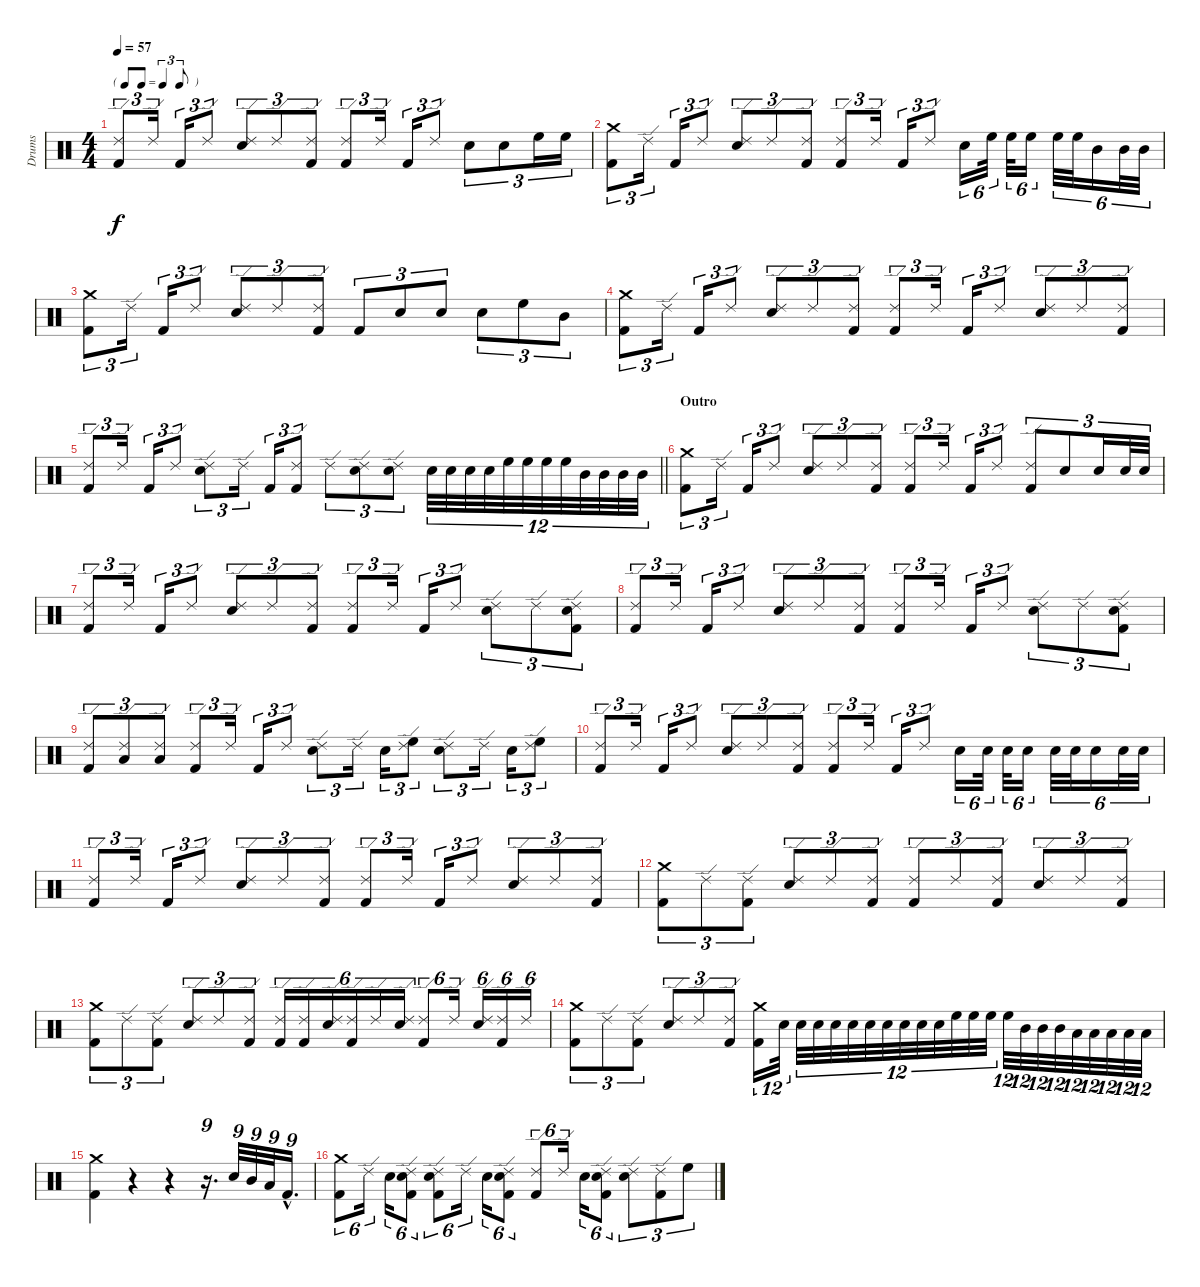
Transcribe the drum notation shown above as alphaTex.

\track ("Drums" "Drums") {instrument percussion}
\staff {score}
\articulation defaults
\ts (4 4)
\tf triplet8th
\tempo 57
\clef neutral
\ks c
("Ride (edge) 2" "Kick (hit) 2").8{tu (3 2) dy f} "Ride (edge) 2".16{tu (3 2)} "Kick (hit) 2".16{tu (3 2)} "Ride (edge) 2".8{tu (3 2)} ("Ride (edge) 2" "Snare (hit) 2").8{tu (3 2)} "Ride (edge) 2".8{tu (3 2)} ("Ride (edge) 2" "Kick (hit) 2").8{tu (3 2)} ("Ride (edge) 2" "Kick (hit) 2").8{tu (3 2)} "Ride (edge) 2".16{tu (3 2)} "Kick (hit) 2".16{tu (3 2)} "Ride (edge) 2".8{tu (3 2)} "Snare (hit) 2".8{tu (3 2)} "Snare (hit) 2".8{tu (3 2)} "High Floor Tom (hit)".16{tu (3 2)} "High Floor Tom (hit)".16{tu (3 2)} |
("Crash medium (hit)" "Kick (hit) 2").8{tu (3 2)} "Ride (edge) 2".16{tu (3 2)} "Kick (hit) 2".16{tu (3 2)} "Ride (edge) 2".8{tu (3 2)} ("Ride (edge) 2" "Snare (hit) 2").8{tu (3 2)} "Ride (edge) 2".8{tu (3 2)} ("Ride (edge) 2" "Kick (hit) 2").8{tu (3 2)} ("Ride (edge) 2" "Kick (hit) 2").8{tu (3 2)} "Ride (edge) 2".16{tu (3 2)} "Kick (hit) 2".16{tu (3 2)} "Ride (edge) 2".8{tu (3 2)} "Snare (hit) 2".16{tu (6 4)} "High Floor Tom (hit)".32{tu (6 4)} "High Floor Tom (hit)".32{tu (6 4)} "High Floor Tom (hit)".16{tu (6 4)} "High Floor Tom (hit)".32{tu (6 4)} "High Floor Tom (hit)".32{tu (6 4)} "Mid Tom (hit)".16{tu (6 4)} "Mid Tom (hit)".32{tu (6 4)} "Mid Tom (hit)".32{tu (6 4)} |
("Crash medium (hit)" "Kick (hit) 2").8{tu (3 2)} "Ride (edge) 2".16{tu (3 2)} "Kick (hit) 2".16{tu (3 2)} "Ride (edge) 2".8{tu (3 2)} ("Ride (edge) 2" "Snare (hit) 2").8{tu (3 2)} "Ride (edge) 2".8{tu (3 2)} ("Ride (edge) 2" "Kick (hit) 2").8{tu (3 2)} "Kick (hit) 2".8{tu (3 2)} "Snare (hit) 2".8{tu (3 2)} "Snare (hit) 2".8{tu (3 2)} "Snare (hit) 2".8{tu (3 2)} "High Floor Tom (hit)".8{tu (3 2)} "Mid Tom (hit)".8{tu (3 2)} |
("Crash medium (hit)" "Kick (hit) 2").8{tu (3 2)} "Ride (edge) 2".16{tu (3 2)} "Kick (hit) 2".16{tu (3 2)} "Ride (edge) 2".8{tu (3 2)} ("Ride (edge) 2" "Snare (hit) 2").8{tu (3 2)} "Ride (edge) 2".8{tu (3 2)} ("Ride (edge) 2" "Kick (hit) 2").8{tu (3 2)} ("Ride (edge) 2" "Kick (hit) 2").8{tu (3 2)} "Ride (edge) 2".16{tu (3 2)} "Kick (hit) 2".16{tu (3 2)} "Ride (edge) 2".8{tu (3 2)} ("Ride (edge) 2" "Snare (hit) 2").8{tu (3 2)} "Ride (edge) 2".8{tu (3 2)} ("Ride (edge) 2" "Kick (hit) 2").8{tu (3 2)} |
\barLineRight lightlight
("Ride (edge) 2" "Kick (hit) 2").8{tu (3 2)} "Ride (edge) 2".16{tu (3 2)} "Kick (hit) 2".16{tu (3 2)} "Ride (edge) 2".8{tu (3 2)} ("Ride (edge) 2" "Snare (hit) 2").8{tu (3 2)} "Ride (edge) 2".16{tu (3 2)} "Kick (hit) 2".16{tu (3 2)} ("Ride (edge) 2" "Kick (hit) 2").8{tu (3 2)} "Ride (edge) 2".8{tu (3 2)} ("Ride (edge) 2" "Snare (hit) 2").8{tu (3 2)} ("Ride (edge) 2" "Snare (hit) 2").8{tu (3 2)} "Snare (hit) 2".32{tu (12 8)} "Snare (hit) 2".32{tu (12 8)} "Snare (hit) 2".32{tu (12 8)} "Snare (hit) 2".32{tu (12 8)} "High Floor Tom (hit)".32{tu (12 8)} "High Floor Tom (hit)".32{tu (12 8)} "High Floor Tom (hit)".32{tu (12 8)} "High Floor Tom (hit)".32{tu (12 8)} "Mid Tom (hit)".32{tu (12 8)} "Mid Tom (hit)".32{tu (12 8)} "Mid Tom (hit)".32{tu (12 8)} "Mid Tom (hit)".32{tu (12 8)} |
\section ("" "Outro")
("Crash medium (hit)" "Kick (hit) 2").8{tu (3 2)} "Ride (edge) 2".16{tu (3 2)} "Kick (hit) 2".16{tu (3 2)} "Ride (edge) 2".8{tu (3 2)} ("Ride (edge) 2" "Snare (hit) 2").8{tu (3 2)} "Ride (edge) 2".8{tu (3 2)} ("Ride (edge) 2" "Kick (hit) 2").8{tu (3 2)} ("Ride (edge) 2" "Kick (hit) 2").8{tu (3 2)} "Ride (edge) 2".16{tu (3 2)} "Kick (hit) 2".16{tu (3 2)} "Ride (edge) 2".8{tu (3 2)} ("Ride (edge) 2" "Kick (hit) 2").8{tu (3 2)} "Snare (hit) 2".8{tu (3 2)} "Snare (hit) 2".16{tu (3 2)} "Snare (hit) 2".32{tu (3 2)} "Snare (hit) 2".32{tu (3 2)} |
("Ride (edge) 2" "Kick (hit) 2").8{tu (3 2)} "Ride (edge) 2".16{tu (3 2)} "Kick (hit) 2".16{tu (3 2)} "Ride (edge) 2".8{tu (3 2)} ("Ride (edge) 2" "Snare (hit) 2").8{tu (3 2)} "Ride (edge) 2".8{tu (3 2)} ("Ride (edge) 2" "Kick (hit) 2").8{tu (3 2)} ("Ride (edge) 2" "Kick (hit) 2").8{tu (3 2)} "Ride (edge) 2".16{tu (3 2)} "Kick (hit) 2".16{tu (3 2)} "Ride (edge) 2".8{tu (3 2)} ("Ride (edge) 2" "Snare (hit) 2").8{tu (3 2)} "Ride (edge) 2".8{tu (3 2)} ("Ride (edge) 2" "Snare (hit) 2" "Kick (hit) 2").8{tu (3 2)} |
("Ride (edge) 2" "Kick (hit) 2").8{tu (3 2)} "Ride (edge) 2".16{tu (3 2)} "Kick (hit) 2".16{tu (3 2)} "Ride (edge) 2".8{tu (3 2)} ("Ride (edge) 2" "Snare (hit) 2").8{tu (3 2)} "Ride (edge) 2".8{tu (3 2)} ("Ride (edge) 2" "Kick (hit) 2").8{tu (3 2)} ("Ride (edge) 2" "Kick (hit) 2").8{tu (3 2)} "Ride (edge) 2".16{tu (3 2)} "Kick (hit) 2".16{tu (3 2)} "Ride (edge) 2".8{tu (3 2)} ("Ride (edge) 2" "Snare (hit) 2").8{tu (3 2)} "Ride (edge) 2".8{tu (3 2)} ("Ride (edge) 2" "Snare (hit) 2" "Kick (hit) 2").8{tu (3 2)} |
("Ride (edge) 2" "Kick (hit) 2").8{tu (3 2)} ("Ride (edge) 2" "Low Tom (hit)").8{tu (3 2)} ("Ride (edge) 2" "Low Tom (hit)").8{tu (3 2)} ("Ride (edge) 2" "Kick (hit) 2").8{tu (3 2)} "Ride (edge) 2".16{tu (3 2)} "Kick (hit) 2".16{tu (3 2)} "Ride (edge) 2".8{tu (3 2)} ("Ride (edge) 2" "Snare (hit) 2").8{tu (3 2)} "Ride (edge) 2".16{tu (3 2)} "Snare (hit) 2".16{tu (3 2)} ("Ride (edge) 2" "High Floor Tom (hit)").8{tu (3 2)} ("Ride (edge) 2" "Snare (hit) 2").8{tu (3 2)} "Ride (edge) 2".16{tu (3 2)} "Snare (hit) 2".16{tu (3 2)} ("Ride (edge) 2" "High Floor Tom (hit)").8{tu (3 2)} |
("Ride (edge) 2" "Kick (hit) 2").8{tu (3 2)} "Ride (edge) 2".16{tu (3 2)} "Kick (hit) 2".16{tu (3 2)} "Ride (edge) 2".8{tu (3 2)} ("Ride (edge) 2" "Snare (hit) 2").8{tu (3 2)} "Ride (edge) 2".8{tu (3 2)} ("Ride (edge) 2" "Kick (hit) 2").8{tu (3 2)} ("Ride (edge) 2" "Kick (hit) 2").8{tu (3 2)} "Ride (edge) 2".16{tu (3 2)} "Kick (hit) 2".16{tu (3 2)} "Ride (edge) 2".8{tu (3 2)} "Snare (hit) 2".16{tu (6 4)} "Snare (hit) 2".32{tu (6 4)} "Snare (hit) 2".32{tu (6 4)} "Snare (hit) 2".16{tu (6 4)} "Snare (hit) 2".32{tu (6 4)} "Snare (hit) 2".32{tu (6 4)} "Snare (hit) 2".16{tu (6 4)} "Snare (hit) 2".32{tu (6 4)} "Snare (hit) 2".32{tu (6 4)} |
("Ride (edge) 2" "Kick (hit) 2").8{tu (3 2)} "Ride (edge) 2".16{tu (3 2)} "Kick (hit) 2".16{tu (3 2)} "Ride (edge) 2".8{tu (3 2)} ("Ride (edge) 2" "Snare (hit) 2").8{tu (3 2)} "Ride (edge) 2".8{tu (3 2)} ("Ride (edge) 2" "Kick (hit) 2").8{tu (3 2)} ("Ride (edge) 2" "Kick (hit) 2").8{tu (3 2)} "Ride (edge) 2".16{tu (3 2)} "Kick (hit) 2".16{tu (3 2)} "Ride (edge) 2".8{tu (3 2)} ("Ride (edge) 2" "Snare (hit) 2").8{tu (3 2)} "Ride (edge) 2".8{tu (3 2)} ("Ride (edge) 2" "Kick (hit) 2").8{tu (3 2)} |
("Crash medium (hit)" "Kick (hit) 2").8{tu (3 2)} "Ride (edge) 2".8{tu (3 2)} ("Ride (edge) 2" "Kick (hit) 2").8{tu (3 2)} ("Ride (edge) 2" "Snare (hit) 2").8{tu (3 2)} "Ride (edge) 2".8{tu (3 2)} ("Ride (edge) 2" "Kick (hit) 2").8{tu (3 2)} ("Ride (edge) 2" "Kick (hit) 2").8{tu (3 2)} "Ride (edge) 2".8{tu (3 2)} ("Ride (edge) 2" "Kick (hit) 2").8{tu (3 2)} ("Ride (edge) 2" "Snare (hit) 2").8{tu (3 2)} "Ride (edge) 2".8{tu (3 2)} ("Ride (edge) 2" "Kick (hit) 2").8{tu (3 2)} |
("Crash medium (hit)" "Kick (hit) 2").8{tu (3 2)} "Ride (edge) 2".8{tu (3 2)} ("Ride (edge) 2" "Kick (hit) 2").8{tu (3 2)} ("Ride (edge) 2" "Snare (hit) 2").8{tu (3 2)} "Ride (edge) 2".8{tu (3 2)} ("Ride (edge) 2" "Kick (hit) 2").8{tu (3 2)} ("Kick (hit) 2" "Ride (edge) 2").16{tu (6 4)} ("Kick (hit) 2" "Ride (edge) 2").16{tu (6 4)} ("Snare (hit) 2" "Ride (edge) 2").16{tu (6 4)} ("Kick (hit) 2" "Ride (edge) 2").16{tu (6 4)} "Ride (edge) 2".16{tu (6 4)} ("Snare (hit) 2" "Ride (edge) 2").16{tu (6 4)} ("Kick (hit) 2" "Ride (edge) 2").8{tu (6 4)} "Ride (edge) 2".16{tu (6 4)} ("Snare (hit) 2" "Ride (edge) 2").16{tu (6 4)} ("Kick (hit) 2" "Ride (edge) 2").16{tu (6 4)} "Ride (edge) 2".16{tu (6 4)} |
("Crash medium (hit)" "Kick (hit) 2").8{tu (3 2)} "Ride (edge) 2".8{tu (3 2)} ("Ride (edge) 2" "Kick (hit) 2").8{tu (3 2)} ("Ride (edge) 2" "Snare (hit) 2").8{tu (3 2)} "Ride (edge) 2".8{tu (3 2)} ("Ride (edge) 2" "Kick (hit) 2").8{tu (3 2)} ("Crash medium (hit)" "Kick (hit) 2").16{tu (12 8)} "Snare (hit) 2".32{tu (12 8)} "Snare (hit) 2".32{tu (12 8)} "Snare (hit) 2".32{tu (12 8)} "Snare (hit) 2".32{tu (12 8)} "Snare (hit) 2".32{tu (12 8)} "Snare (hit) 2".32{tu (12 8)} "Snare (hit) 2".32{tu (12 8)} "Snare (hit) 2".32{tu (12 8)} "Snare (hit) 2".32{tu (12 8)} "Snare (hit) 2".32{tu (12 8)} "High Floor Tom (hit)".32{tu (12 8)} "High Floor Tom (hit)".32{tu (12 8)} "High Floor Tom (hit)".32{tu (12 8)} "High Floor Tom (hit)".32{tu (12 8)} "Mid Tom (hit)".32{tu (12 8)} "Mid Tom (hit)".32{tu (12 8)} "Mid Tom (hit)".32{tu (12 8)} "Low Tom (hit)".32{tu (12 8)} "Low Tom (hit)".32{tu (12 8)} "Low Tom (hit)".32{tu (12 8)} "Low Tom (hit)".32{tu (12 8)} "Low Tom (hit)".32{tu (12 8)} |
("Crash medium (hit)" "Kick (hit) 2").4 r.4 r.4 r.16{d tu (9 8)} "Snare (hit) 2".32{tu (9 8)} "Mid Tom (hit)".32{tu (9 8)} "Low Tom (hit)".32{tu (9 8)} "Kick (hit) 2"{hac}.16{d tu (9 8)} |
("Crash medium (hit)" "Kick (hit) 2").8{tu (6 4)} "Ride (edge) 2".16{tu (6 4)} "Snare (hit) 2".16{tu (6 4)} ("Ride (edge) 2" "Snare (hit) 2" "Kick (hit) 2").8{tu (6 4)} ("Ride (edge) 2" "Snare (hit) 2" "Kick (hit) 2").8{tu (6 4)} "Ride (edge) 2".16{tu (6 4)} "Snare (hit) 2".16{tu (6 4)} ("Ride (edge) 2" "Kick (hit) 2" "Snare (hit) 2").8{tu (6 4)} ("Ride (edge) 2" "Kick (hit) 2").8{tu (6 4)} "Ride (edge) 2".16{tu (6 4)} "Snare (hit) 2".16{tu (6 4)} ("Snare (hit) 2" "Ride (edge) 2" "Kick (hit) 2").8{tu (6 4)} ("Ride (edge) 2" "Snare (hit) 2").8{tu (3 2)} ("Ride (edge) 2" "Kick (hit) 2").8{tu (3 2)} "High Floor Tom (hit)".8{tu (3 2)}
